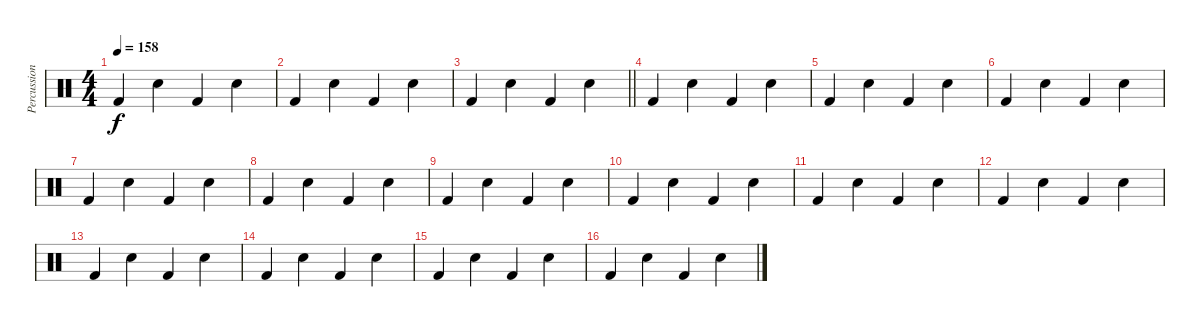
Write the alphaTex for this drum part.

\track ("Percussions" "Percussion") {instrument percussion}
\staff {score}
\articulation defaults
\ts (4 4)
\tempo 158
\clef neutral
\ks c "Kick (hit) 2".4{dy f} "Electric Snare (hit)".4 "Kick (hit) 2".4 "Electric Snare (hit)".4
|
"Kick (hit) 2".4{volume 16} "Electric Snare (hit)".4 "Kick (hit) 2".4 "Electric Snare (hit)".4 |
\barLineRight lightlight "Kick (hit) 2".4{volume 16} "Electric Snare (hit)".4 "Kick (hit) 2".4 "Electric Snare (hit)".4
|
"Kick (hit) 2".4{volume 16} "Electric Snare (hit)".4 "Kick (hit) 2".4 "Electric Snare (hit)".4 |
"Kick (hit) 2".4 "Electric Snare (hit)".4 "Kick (hit) 2".4 "Electric Snare (hit)".4 |
"Kick (hit) 2".4{volume 16} "Electric Snare (hit)".4 "Kick (hit) 2".4 "Electric Snare (hit)".4 |
"Kick (hit) 2".4 "Electric Snare (hit)".4 "Kick (hit) 2".4 "Electric Snare (hit)".4 |
"Kick (hit) 2".4{volume 16} "Electric Snare (hit)".4 "Kick (hit) 2".4 "Electric Snare (hit)".4 |
"Kick (hit) 2".4 "Electric Snare (hit)".4 "Kick (hit) 2".4 "Electric Snare (hit)".4 |
"Kick (hit) 2".4{volume 16} "Electric Snare (hit)".4 "Kick (hit) 2".4 "Electric Snare (hit)".4 |
"Kick (hit) 2".4 "Electric Snare (hit)".4 "Kick (hit) 2".4 "Electric Snare (hit)".4 |
"Kick (hit) 2".4{volume 16} "Electric Snare (hit)".4 "Kick (hit) 2".4 "Electric Snare (hit)".4 |
"Kick (hit) 2".4 "Electric Snare (hit)".4 "Kick (hit) 2".4 "Electric Snare (hit)".4 |
"Kick (hit) 2".4{volume 16} "Electric Snare (hit)".4 "Kick (hit) 2".4 "Electric Snare (hit)".4 |
"Kick (hit) 2".4 "Electric Snare (hit)".4 "Kick (hit) 2".4 "Electric Snare (hit)".4 |
"Kick (hit) 2".4{volume 16} "Electric Snare (hit)".4 "Kick (hit) 2".4 "Electric Snare (hit)".4
